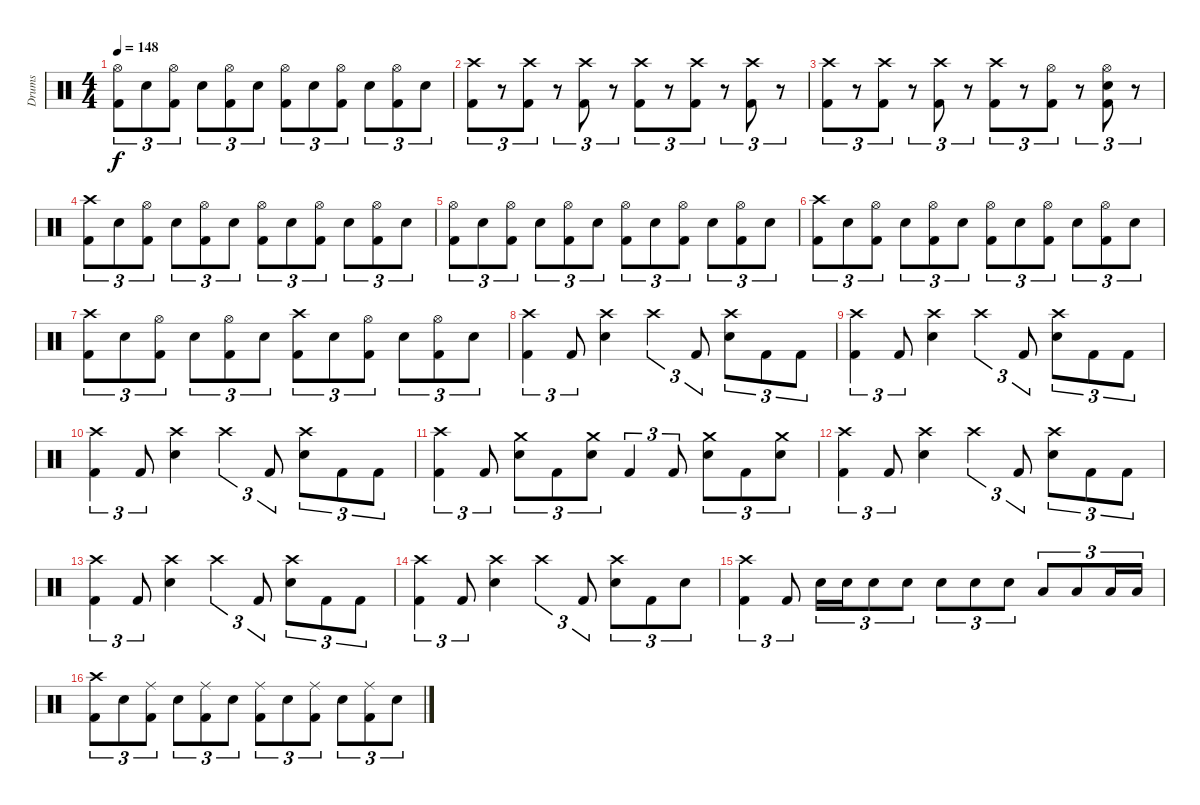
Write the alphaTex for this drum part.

\track ("Drums" "Drums") {instrument percussion}
\staff {score}
\articulation defaults
\ts (4 4)
\tempo 148
\clef neutral
\ks c
("Hi-Hat (open)" "Kick (hit) 2").8{tu (3 2) dy f} "Electric Snare (hit)".8{tu (3 2)} ("Hi-Hat (open)" "Kick (hit) 2").8{tu (3 2)} "Electric Snare (hit)".8{tu (3 2)} ("Hi-Hat (open)" "Kick (hit) 2").8{tu (3 2)} "Electric Snare (hit)".8{tu (3 2)} ("Hi-Hat (open)" "Kick (hit) 2").8{tu (3 2)} "Electric Snare (hit)".8{tu (3 2)} ("Hi-Hat (open)" "Kick (hit) 2").8{tu (3 2)} "Electric Snare (hit)".8{tu (3 2)} ("Hi-Hat (open)" "Kick (hit) 2").8{tu (3 2)} "Electric Snare (hit)".8{tu (3 2)} |
("Crash high (hit)" "Kick (hit) 2").8{tu (3 2)} r.8{tu (3 2)} ("Crash high (hit)" "Kick (hit) 2").8{tu (3 2)} r.8{tu (3 2)} ("Crash high (hit)" "Kick (hit) 2").8{tu (3 2)} r.8{tu (3 2)} ("Crash high (hit)" "Kick (hit) 2").8{tu (3 2)} r.8{tu (3 2)} ("Crash high (hit)" "Kick (hit) 2").8{tu (3 2)} r.8{tu (3 2)} ("Crash high (hit)" "Kick (hit) 2").8{tu (3 2)} r.8{tu (3 2)} |
("Crash high (hit)" "Kick (hit) 2").8{tu (3 2)} r.8{tu (3 2)} ("Crash high (hit)" "Kick (hit) 2").8{tu (3 2)} r.8{tu (3 2)} ("Crash high (hit)" "Kick (hit) 2").8{tu (3 2)} r.8{tu (3 2)} ("Crash high (hit)" "Kick (hit) 2").8{tu (3 2)} r.8{tu (3 2)} ("Hi-Hat (open)" "Kick (hit) 2").8{tu (3 2)} r.8{tu (3 2)} ("Hi-Hat (open)" "Electric Snare (hit)" "Kick (hit) 2").8{tu (3 2)} r.8{tu (3 2)} |
("Crash high (hit)" "Kick (hit) 2").8{tu (3 2)} "Electric Snare (hit)".8{tu (3 2)} ("Hi-Hat (open)" "Kick (hit) 2").8{tu (3 2)} "Electric Snare (hit)".8{tu (3 2)} ("Hi-Hat (open)" "Kick (hit) 2").8{tu (3 2)} "Electric Snare (hit)".8{tu (3 2)} ("Hi-Hat (open)" "Kick (hit) 2").8{tu (3 2)} "Electric Snare (hit)".8{tu (3 2)} ("Hi-Hat (open)" "Kick (hit) 2").8{tu (3 2)} "Electric Snare (hit)".8{tu (3 2)} ("Hi-Hat (open)" "Kick (hit) 2").8{tu (3 2)} "Electric Snare (hit)".8{tu (3 2)} |
("Hi-Hat (open)" "Kick (hit) 2").8{tu (3 2)} "Electric Snare (hit)".8{tu (3 2)} ("Hi-Hat (open)" "Kick (hit) 2").8{tu (3 2)} "Electric Snare (hit)".8{tu (3 2)} ("Hi-Hat (open)" "Kick (hit) 2").8{tu (3 2)} "Electric Snare (hit)".8{tu (3 2)} ("Hi-Hat (open)" "Kick (hit) 2").8{tu (3 2)} "Electric Snare (hit)".8{tu (3 2)} ("Hi-Hat (open)" "Kick (hit) 2").8{tu (3 2)} "Electric Snare (hit)".8{tu (3 2)} ("Hi-Hat (open)" "Kick (hit) 2").8{tu (3 2)} "Electric Snare (hit)".8{tu (3 2)} |
("Crash high (hit)" "Kick (hit) 2").8{tu (3 2)} "Electric Snare (hit)".8{tu (3 2)} ("Hi-Hat (open)" "Kick (hit) 2").8{tu (3 2)} "Electric Snare (hit)".8{tu (3 2)} ("Hi-Hat (open)" "Kick (hit) 2").8{tu (3 2)} "Electric Snare (hit)".8{tu (3 2)} ("Hi-Hat (open)" "Kick (hit) 2").8{tu (3 2)} "Electric Snare (hit)".8{tu (3 2)} ("Hi-Hat (open)" "Kick (hit) 2").8{tu (3 2)} "Electric Snare (hit)".8{tu (3 2)} ("Hi-Hat (open)" "Kick (hit) 2").8{tu (3 2)} "Electric Snare (hit)".8{tu (3 2)} |
("Crash high (hit)" "Kick (hit) 2").8{tu (3 2)} "Electric Snare (hit)".8{tu (3 2)} ("Hi-Hat (open)" "Kick (hit) 2").8{tu (3 2)} "Electric Snare (hit)".8{tu (3 2)} ("Hi-Hat (open)" "Kick (hit) 2").8{tu (3 2)} "Electric Snare (hit)".8{tu (3 2)} ("Crash high (hit)" "Kick (hit) 2").8{tu (3 2)} "Electric Snare (hit)".8{tu (3 2)} ("Hi-Hat (open)" "Kick (hit) 2").8{tu (3 2)} "Electric Snare (hit)".8{tu (3 2)} ("Hi-Hat (open)" "Kick (hit) 2").8{tu (3 2)} "Electric Snare (hit)".8{tu (3 2)} |
("Crash high (hit)" "Kick (hit) 2").4{tu (3 2)} "Kick (hit) 2".8{tu (3 2)} ("Crash high (hit)" "Electric Snare (hit)").4 "Crash high (hit)".4{tu (3 2)} "Kick (hit) 2".8{tu (3 2)} ("Crash high (hit)" "Electric Snare (hit)").8{tu (3 2)} "Kick (hit) 2".8{tu (3 2)} "Kick (hit) 2".8{tu (3 2)} |
("Crash high (hit)" "Kick (hit) 2").4{tu (3 2)} "Kick (hit) 2".8{tu (3 2)} ("Crash high (hit)" "Electric Snare (hit)").4 "Crash high (hit)".4{tu (3 2)} "Kick (hit) 2".8{tu (3 2)} ("Crash high (hit)" "Electric Snare (hit)").8{tu (3 2)} "Kick (hit) 2".8{tu (3 2)} "Kick (hit) 2".8{tu (3 2)} |
("Crash high (hit)" "Kick (hit) 2").4{tu (3 2)} "Kick (hit) 2".8{tu (3 2)} ("Crash high (hit)" "Electric Snare (hit)").4 "Crash high (hit)".4{tu (3 2)} "Kick (hit) 2".8{tu (3 2)} ("Crash high (hit)" "Electric Snare (hit)").8{tu (3 2)} "Kick (hit) 2".8{tu (3 2)} "Kick (hit) 2".8{tu (3 2)} |
("Crash high (hit)" "Kick (hit) 2").4{tu (3 2)} "Kick (hit) 2".8{tu (3 2)} ("Crash medium (hit)" "Electric Snare (hit)").8{tu (3 2)} "Kick (hit) 2".8{tu (3 2)} ("Crash medium (hit)" "Electric Snare (hit)").8{tu (3 2)} "Kick (hit) 2".4{tu (3 2)} "Kick (hit) 2".8{tu (3 2)} ("Crash medium (hit)" "Electric Snare (hit)").8{tu (3 2)} "Kick (hit) 2".8{tu (3 2)} ("Crash medium (hit)" "Electric Snare (hit)").8{tu (3 2)} |
("Crash high (hit)" "Kick (hit) 2").4{tu (3 2)} "Kick (hit) 2".8{tu (3 2)} ("Crash high (hit)" "Electric Snare (hit)").4 "Crash high (hit)".4{tu (3 2)} "Kick (hit) 2".8{tu (3 2)} ("Crash high (hit)" "Electric Snare (hit)").8{tu (3 2)} "Kick (hit) 2".8{tu (3 2)} "Kick (hit) 2".8{tu (3 2)} |
("Crash high (hit)" "Kick (hit) 2").4{tu (3 2)} "Kick (hit) 2".8{tu (3 2)} ("Crash high (hit)" "Electric Snare (hit)").4 "Crash high (hit)".4{tu (3 2)} "Kick (hit) 2".8{tu (3 2)} ("Crash high (hit)" "Electric Snare (hit)").8{tu (3 2)} "Kick (hit) 2".8{tu (3 2)} "Kick (hit) 2".8{tu (3 2)} |
("Crash high (hit)" "Kick (hit) 2").4{tu (3 2)} "Kick (hit) 2".8{tu (3 2)} ("Crash high (hit)" "Electric Snare (hit)").4 "Crash high (hit)".4{tu (3 2)} "Kick (hit) 2".8{tu (3 2)} ("Crash high (hit)" "Electric Snare (hit)").8{tu (3 2)} "Kick (hit) 2".8{tu (3 2)} "Electric Snare (hit)".8{tu (3 2)} |
("Crash high (hit)" "Kick (hit) 2").4{tu (3 2)} "Kick (hit) 2".8{tu (3 2)} "Electric Snare (hit)".16{tu (3 2)} "Electric Snare (hit)".16{tu (3 2)} "Electric Snare (hit)".8{tu (3 2)} "Electric Snare (hit)".8{tu (3 2)} "Electric Snare (hit)".8{tu (3 2)} "Electric Snare (hit)".8{tu (3 2)} "Electric Snare (hit)".8{tu (3 2)} "Low Tom (hit)".8{tu (3 2)} "Low Tom (hit)".8{tu (3 2)} "Low Floor Tom (hit)".16{tu (3 2)} "Low Floor Tom (hit)".16{tu (3 2)} |
("Crash high (hit)" "Kick (hit) 2").8{tu (3 2)} "Electric Snare (hit)".8{tu (3 2)} ("Ride (middle)" "Kick (hit) 2").8{tu (3 2)} "Electric Snare (hit)".8{tu (3 2)} ("Ride (middle)" "Kick (hit) 2").8{tu (3 2)} "Electric Snare (hit)".8{tu (3 2)} ("Ride (middle)" "Kick (hit) 2").8{tu (3 2)} "Electric Snare (hit)".8{tu (3 2)} ("Ride (middle)" "Kick (hit) 2").8{tu (3 2)} "Electric Snare (hit)".8{tu (3 2)} ("Ride (middle)" "Kick (hit) 2").8{tu (3 2)} "Electric Snare (hit)".8{tu (3 2)}
